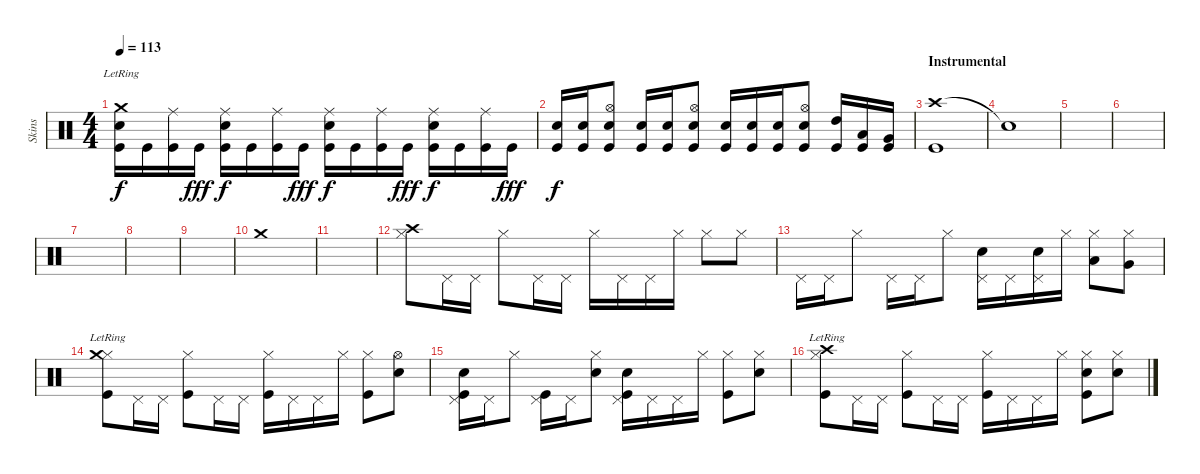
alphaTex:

\track ("Skins" "Skins") {instrument percussion}
\staff {score}
\articulation defaults
\ts (4 4)
\tempo 113
\clef neutral
\ks c
("Snare (hit) 2" "Crash medium (hit)"{lr} "Kick (hit)").16{dy f} "Kick (hit)".16 ("Ride (middle)" "Kick (hit)").16 "Kick (hit)".16{dy fff} ("Ride (middle)" "Snare (hit) 2" "Kick (hit)").16{dy f} "Kick (hit)".16 ("Ride (middle)" "Kick (hit)").16 "Kick (hit)".16{dy fff} ("Ride (middle)" "Snare (hit) 2" "Kick (hit)").16{dy f} "Kick (hit)".16 ("Ride (middle)" "Kick (hit)").16 "Kick (hit)".16{dy fff} ("Ride (middle)" "Snare (hit) 2" "Kick (hit)").16{dy f} "Kick (hit)".16 ("Ride (middle)" "Kick (hit)").16 "Kick (hit)".16{dy fff} |
("Snare (hit) 2" "Kick (hit)").16{dy f} ("Snare (hit) 2" "Kick (hit)").16 ("Hi-Hat (open)" "Electric Snare (hit)" "Kick (hit)").8 ("Snare (hit) 2" "Kick (hit)").16 ("Snare (hit) 2" "Kick (hit)").16 ("Hi-Hat (open)" "Electric Snare (hit)" "Kick (hit)").8 ("Snare (hit) 2" "Kick (hit)").16 ("Snare (hit) 2" "Kick (hit)").16 ("Snare (hit) 2" "Kick (hit)").16 ("Hi-Hat (open)" "Electric Snare (hit)" "Kick (hit)").8 ("High Tom (hit)" "Kick (hit)").16 ("Low Tom (hit)" "Kick (hit)").16 ("Very Low Tom (hit)" "Kick (hit)").16 |
\section ("" "Instrumental")
("Crash high (hit)" "Kick (hit)").1 |
"Snare (hit)"{t}.1 |
|
|
|
|
|
"Crash medium (hit)".1 |
|
("Hi-Hat (closed)" "Crash high (hit)").8 "Pedal Hi-Hat (hit)".16 "Pedal Hi-Hat (hit)".16 "Hi-Hat (closed)".8 "Pedal Hi-Hat (hit)".16 "Pedal Hi-Hat (hit)".16 "Hi-Hat (closed)".16 "Pedal Hi-Hat (hit)".16 "Pedal Hi-Hat (hit)".16 "Hi-Hat (closed)".16 "Hi-Hat (closed)".8 "Hi-Hat (closed)".8 |
"Pedal Hi-Hat (hit)".16 "Pedal Hi-Hat (hit)".16 "Hi-Hat (closed)".8 "Pedal Hi-Hat (hit)".16 "Pedal Hi-Hat (hit)".16 "Hi-Hat (closed)".8 ("Pedal Hi-Hat (hit)" "Electric Snare (hit)").16 "Pedal Hi-Hat (hit)".16 ("Pedal Hi-Hat (hit)" "Snare (hit) 2").16 "Hi-Hat (closed)".16 ("Hi-Hat (closed)" "Low Tom (hit)").8 ("Hi-Hat (closed)" "Very Low Tom (hit)").8 |
("Hi-Hat (closed)" "Crash medium (hit)"{lr} "Kick (hit)").8 "Pedal Hi-Hat (hit)".16 "Pedal Hi-Hat (hit)".16 ("Hi-Hat (closed)" "Kick (hit)").8 "Pedal Hi-Hat (hit)".16 "Pedal Hi-Hat (hit)".16 ("Hi-Hat (closed)" "Kick (hit)").16 "Pedal Hi-Hat (hit)".16 "Pedal Hi-Hat (hit)".16 "Hi-Hat (closed)".16 ("Hi-Hat (closed)" "Kick (hit)").8 ("Hi-Hat (open)" "Electric Snare (hit)").8 |
("Pedal Hi-Hat (hit)" "Snare (hit) 2" "Kick (hit)").16 "Pedal Hi-Hat (hit)".16 "Hi-Hat (closed)".8 ("Pedal Hi-Hat (hit)" "Kick (hit)").16 "Pedal Hi-Hat (hit)".16 ("Hi-Hat (closed)" "Snare (hit) 2").8 ("Pedal Hi-Hat (hit)" "Electric Snare (hit)" "Kick (hit)").16 "Pedal Hi-Hat (hit)".16 "Pedal Hi-Hat (hit)".16 "Hi-Hat (closed)".16 ("Hi-Hat (closed)" "Kick (hit)").8 ("Hi-Hat (closed)" "Snare (hit) 2").8 |
("Hi-Hat (closed)" "Crash high (hit)"{lr} "Kick (hit)").8 "Pedal Hi-Hat (hit)".16 "Pedal Hi-Hat (hit)".16 ("Hi-Hat (closed)" "Kick (hit)").8 "Pedal Hi-Hat (hit)".16 "Pedal Hi-Hat (hit)".16 ("Hi-Hat (closed)" "Kick (hit)").16 "Pedal Hi-Hat (hit)".16 "Pedal Hi-Hat (hit)".16 "Hi-Hat (closed)".16 ("Hi-Hat (closed)" "Electric Snare (hit)" "Kick (hit)").8 ("Hi-Hat (closed)" "Electric Snare (hit)").8
